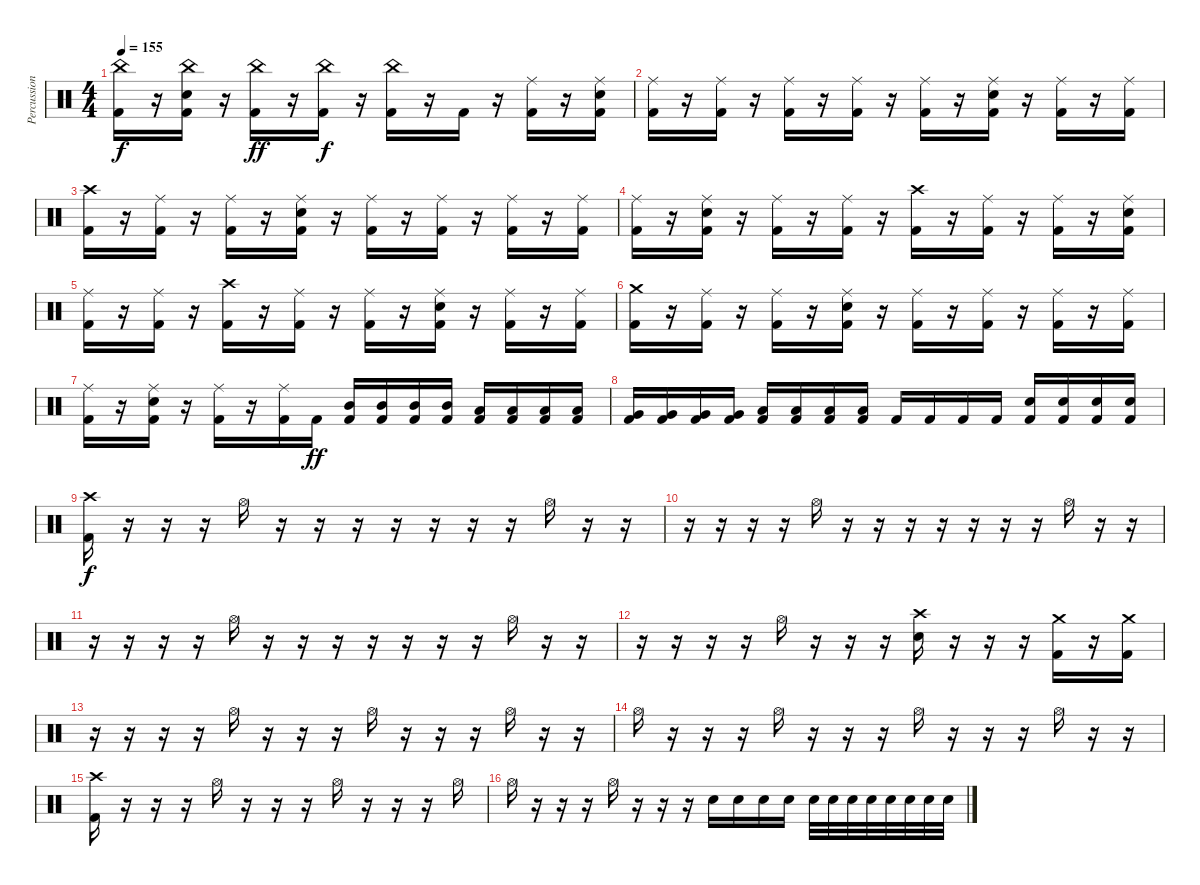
\track ("Percussion" "Percussion") {instrument percussion}
\staff {score}
\articulation defaults
\ts (4 4)
\tempo 155
\clef neutral
\ks c
("Kick (hit) 2" "China (hit)").16{dy f} r.16 ("Kick (hit) 2" "Snare (hit) 2" "China (hit)").16 r.16 ("Kick (hit) 2" "China (hit)").16{dy ff} r.16 ("Kick (hit) 2" "China (hit)").16{dy f} r.16 ("Kick (hit) 2" "China (hit)").16 r.16 "Kick (hit) 2".16 r.16 ("Kick (hit) 2" "Ride (middle)").16 r.16 ("Kick (hit) 2" "Snare (hit) 2" "Ride (middle)").16 |
("Kick (hit) 2" "Ride (middle)").16 r.16 ("Kick (hit) 2" "Ride (middle)").16 r.16 ("Kick (hit) 2" "Ride (middle)").16 r.16 ("Kick (hit) 2" "Ride (middle)").16 r.16 ("Kick (hit) 2" "Ride (middle)").16 r.16 ("Kick (hit) 2" "Snare (hit) 2" "Ride (middle)").16 r.16 ("Kick (hit) 2" "Ride (middle)").16 r.16 ("Kick (hit) 2" "Ride (middle)").16 |
("Kick (hit) 2" "Crash high (hit)").16 r.16 ("Kick (hit) 2" "Ride (middle)").16 r.16 ("Kick (hit) 2" "Ride (middle)").16 r.16 ("Kick (hit) 2" "Snare (hit) 2" "Ride (middle)").16 r.16 ("Kick (hit) 2" "Ride (middle)").16 r.16 ("Kick (hit) 2" "Ride (middle)").16 r.16 ("Kick (hit) 2" "Ride (middle)").16 r.16 ("Kick (hit) 2" "Ride (middle)").16 |
("Kick (hit) 2" "Ride (middle)").16 r.16 ("Kick (hit) 2" "Snare (hit) 2" "Ride (middle)").16 r.16 ("Kick (hit) 2" "Ride (middle)").16 r.16 ("Kick (hit) 2" "Ride (middle)").16 r.16 ("Kick (hit) 2" "Crash high (hit)").16 r.16 ("Kick (hit) 2" "Ride (middle)").16 r.16 ("Kick (hit) 2" "Ride (middle)").16 r.16 ("Kick (hit) 2" "Snare (hit) 2" "Ride (middle)").16 |
("Kick (hit) 2" "Ride (middle)").16 r.16 ("Kick (hit) 2" "Ride (middle)").16 r.16 ("Kick (hit) 2" "Crash high (hit)").16 r.16 ("Kick (hit) 2" "Ride (middle)").16 r.16 ("Kick (hit) 2" "Ride (middle)").16 r.16 ("Kick (hit) 2" "Snare (hit) 2" "Ride (middle)").16 r.16 ("Kick (hit) 2" "Ride (middle)").16 r.16 ("Kick (hit) 2" "Ride (middle)").16 |
("Kick (hit) 2" "Crash medium (hit)").16 r.16 ("Kick (hit) 2" "Ride (middle)").16 r.16 ("Kick (hit) 2" "Ride (middle)").16 r.16 ("Kick (hit) 2" "Snare (hit) 2" "Ride (middle)").16 r.16 ("Kick (hit) 2" "Ride (middle)").16 r.16 ("Kick (hit) 2" "Ride (middle)").16 r.16 ("Kick (hit) 2" "Ride (middle)").16 r.16 ("Kick (hit) 2" "Ride (middle)").16 |
("Kick (hit) 2" "Ride (middle)").16 r.16 ("Kick (hit) 2" "Snare (hit) 2" "Ride (middle)").16 r.16 ("Kick (hit) 2" "Ride (middle)").16 r.16 ("Kick (hit) 2" "Ride (middle)").16 "Kick (hit) 2".16{dy ff} ("Kick (hit) 2" "Mid Tom (hit)").16 ("Kick (hit) 2" "Mid Tom (hit)").16 ("Kick (hit) 2" "Mid Tom (hit)").16 ("Kick (hit) 2" "Mid Tom (hit)").16 ("Kick (hit) 2" "Low Tom (hit)").16 ("Kick (hit) 2" "Low Tom (hit)").16 ("Kick (hit) 2" "Low Tom (hit)").16 ("Kick (hit) 2" "Low Tom (hit)").16 |
("Kick (hit) 2" "Very Low Tom (hit)").16 ("Kick (hit) 2" "Very Low Tom (hit)").16 ("Kick (hit) 2" "Very Low Tom (hit)").16 ("Kick (hit) 2" "Very Low Tom (hit)").16 ("Kick (hit) 2" "Low Floor Tom (hit)").16 ("Kick (hit) 2" "Low Floor Tom (hit)").16 ("Kick (hit) 2" "Low Floor Tom (hit)").16 ("Kick (hit) 2" "Low Floor Tom (hit)").16 "Kick (hit) 2".16 "Kick (hit) 2".16 "Kick (hit) 2".16 "Kick (hit) 2".16 ("Kick (hit) 2" "Snare (hit) 2").16 ("Kick (hit) 2" "Snare (hit) 2").16 ("Kick (hit) 2" "Snare (hit) 2").16 ("Kick (hit) 2" "Snare (hit) 2").16 |
("Kick (hit) 2" "Crash high (hit)").16{dy f} r.16 r.16 r.16 "Hi-Hat (open)".16 r.16 r.16 r.16 r.16 r.16 r.16 r.16 "Hi-Hat (open)".16 r.16 r.16 |
r.16 r.16 r.16 r.16 "Hi-Hat (open)".16 r.16 r.16 r.16 r.16 r.16 r.16 r.16 "Hi-Hat (open)".16 r.16 r.16 |
r.16 r.16 r.16 r.16 "Hi-Hat (open)".16 r.16 r.16 r.16 r.16 r.16 r.16 r.16 "Hi-Hat (open)".16 r.16 r.16 |
r.16 r.16 r.16 r.16 "Hi-Hat (open)".16 r.16 r.16 r.16 ("Snare (hit) 2" "Crash high (hit)").16 r.16 r.16 r.16 ("Kick (hit) 2" "Crash medium (hit)").16 r.16 ("Kick (hit) 2" "Crash medium (hit)").16 |
r.16 r.16 r.16 r.16 "Hi-Hat (open)".16 r.16 r.16 r.16 "Hi-Hat (open)".16 r.16 r.16 r.16 "Hi-Hat (open)".16 r.16 r.16 |
"Hi-Hat (open)".16 r.16 r.16 r.16 "Hi-Hat (open)".16 r.16 r.16 r.16 "Hi-Hat (open)".16 r.16 r.16 r.16 "Hi-Hat (open)".16 r.16 r.16 |
("Crash high (hit)" "Kick (hit) 2").16 r.16 r.16 r.16 "Hi-Hat (open)".16 r.16 r.16 r.16 "Hi-Hat (open)".16 r.16 r.16 r.16 "Hi-Hat (open)".16 |
"Hi-Hat (open)".16 r.16 r.16 r.16 "Hi-Hat (open)".16 r.16 r.16 r.16 "Snare (hit) 2".16 "Snare (hit) 2".16 "Snare (hit) 2".16 "Snare (hit) 2".16 "Snare (hit) 2".32 "Snare (hit) 2".32 "Snare (hit) 2".32 "Snare (hit) 2".32 "Snare (hit) 2".32 "Snare (hit) 2".32 "Snare (hit) 2".32 "Snare (hit) 2".32
